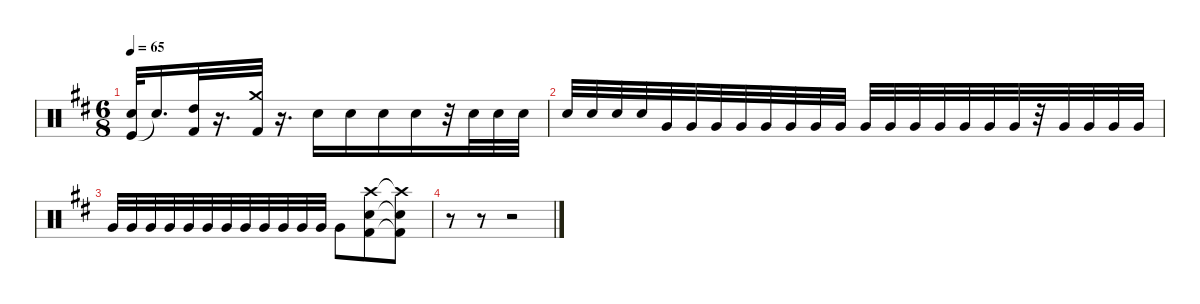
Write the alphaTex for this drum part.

\hideDynamics
\bracketExtendMode nobrackets
\singleTrackTrackNamePolicy hidden
\multiTrackTrackNamePolicy hidden
\firstSystemTrackNameMode fullname
\firstSystemTrackNameOrientation horizontal
\otherSystemsTrackNameOrientation horizontal
\track ("Drums" "drm.") {instrument percussion}
\staff {score}
\articulation defaults
\ts (6 8)
\tempo 65
\clef neutral
\ks bminor
("Kick (hit)"{acc forcenatural} "Electric Snare (hit)"{acc forcenatural}).32{dy fff beam Up} "Electric Snare (hit)"{t acc forcenatural}.16{d beam Up} ("Kick (hit) 2"{acc forcenatural} "High Tom (hit)"{acc forcenatural}).32{dy f beam Up} r.16{d beam Up} ("Crash medium (hit)"{acc forcenatural} "Kick (hit) 2"{acc forcenatural}).32{dy fff beam Down} r.16{d beam Down} "Snare (hit) 2"{acc forcenatural}.16{beam Down} "Snare (hit) 2"{acc forcenatural}.16{beam Down} "Snare (hit) 2"{acc forcenatural}.16{beam Down} "Snare (hit) 2"{acc forcenatural}.16{beam Down} r.32{beam Down} "Snare (hit) 2"{acc forcenatural}.32{dy ff beam Down} "Snare (hit) 2"{acc forcenatural}.32{beam Down} "Snare (hit) 2"{acc forcenatural}.32{beam Down} |
"Snare (hit) 2"{acc forcenatural}.32{beam Up} "Snare (hit) 2"{acc forcenatural}.32{beam Up} "Snare (hit) 2"{acc forcenatural}.32{beam Up} "Snare (hit) 2"{acc forcenatural}.32{beam Up} "Very Low Tom (hit)"{acc forcenatural}.32{beam Up} "Very Low Tom (hit)"{acc forcenatural}.32{beam Up} "Very Low Tom (hit)"{acc forcenatural}.32{beam Up} "Very Low Tom (hit)"{acc forcenatural}.32{beam Up} "Very Low Tom (hit)"{acc forcenatural}.32{beam Up} "Very Low Tom (hit)"{acc forcenatural}.32{beam Up} "Very Low Tom (hit)"{acc forcenatural}.32{beam Up} "Very Low Tom (hit)"{acc forcenatural}.32{beam Up} "Very Low Tom (hit)"{acc forcenatural}.32{beam Up} "Very Low Tom (hit)"{acc forcenatural}.32{beam Up} "Very Low Tom (hit)"{acc forcenatural}.32{beam Up} "Very Low Tom (hit)"{acc forcenatural}.32{beam Up} "Very Low Tom (hit)"{acc forcenatural}.32{beam Up} "Very Low Tom (hit)"{acc forcenatural}.32{beam Up} "Very Low Tom (hit)"{acc forcenatural}.32{beam Up} r.32{beam Up} "Very Low Tom (hit)"{acc forcenatural}.32{beam Up} "Very Low Tom (hit)"{acc forcenatural}.32{beam Up} "Very Low Tom (hit)"{acc forcenatural}.32{beam Up} "Very Low Tom (hit)"{acc forcenatural}.32{beam Up} |
"Very Low Tom (hit)"{acc forcenatural}.32{beam Up} "Very Low Tom (hit)"{acc forcenatural}.32{beam Up} "Very Low Tom (hit)"{acc forcenatural}.32{beam Up} "Very Low Tom (hit)"{acc forcenatural}.32{beam Up} "Very Low Tom (hit)"{acc forcenatural}.32{beam Up} "Very Low Tom (hit)"{acc forcenatural}.32{beam Up} "Very Low Tom (hit)"{acc forcenatural}.32{beam Up} "Very Low Tom (hit)"{acc forcenatural}.32{beam Up} "Very Low Tom (hit)"{acc forcenatural}.32{beam Up} "Very Low Tom (hit)"{acc forcenatural}.32{beam Up} "Very Low Tom (hit)"{acc forcenatural}.32{beam Up} "Very Low Tom (hit)"{acc forcenatural}.32{beam Up} "Very Low Tom (hit)"{acc forcenatural}.8{beam Down} ("Snare (hit) 2"{acc forcenatural} "Kick (hit) 2"{acc forcenatural} "Crash high (hit)"{acc #}).8{beam Down} ("Snare (hit) 2"{t acc forcenatural} "Kick (hit) 2"{t acc forcenatural} "Crash high (hit)"{t acc #}).8{beam Down} |
r.8{beam Down} r.8{beam Down} r.2{beam Down}
